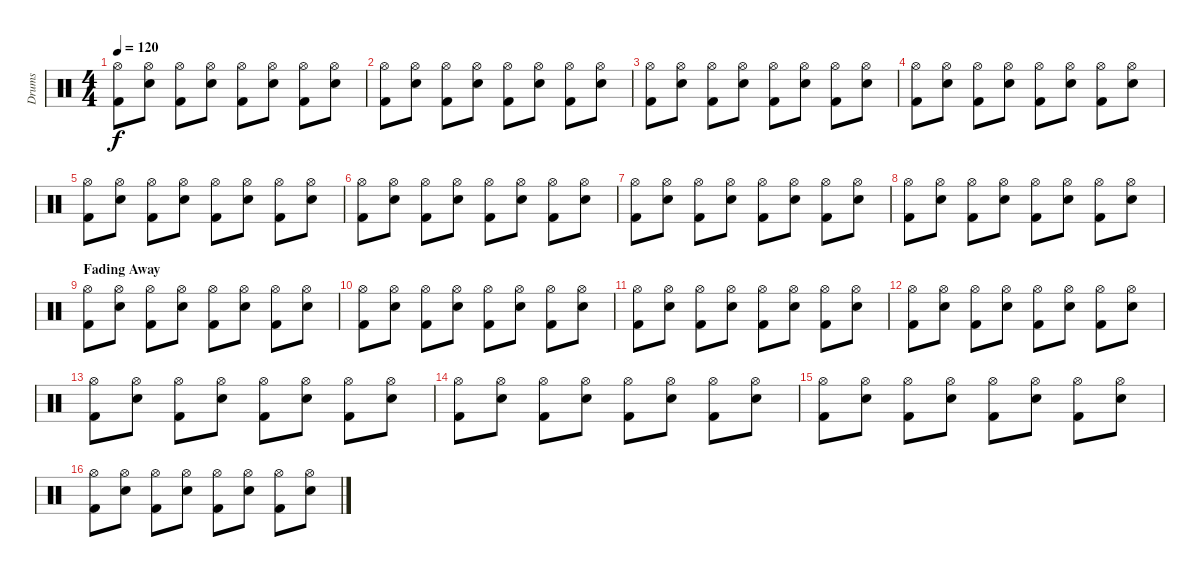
\track ("Drums" "Drums") {instrument percussion}
\staff {score}
\articulation defaults
\ts (4 4)
\tempo 120
\clef neutral
\ks c
("Hi-Hat (open)" "Kick (hit) 2").8{dy f} ("Hi-Hat (open)" "Snare (hit) 2").8 ("Hi-Hat (open)" "Kick (hit) 2").8 ("Hi-Hat (open)" "Snare (hit) 2").8 ("Hi-Hat (open)" "Kick (hit) 2").8 ("Hi-Hat (open)" "Snare (hit) 2").8 ("Hi-Hat (open)" "Kick (hit) 2").8 ("Hi-Hat (open)" "Snare (hit) 2").8 |
("Hi-Hat (open)" "Kick (hit) 2").8 ("Hi-Hat (open)" "Snare (hit) 2").8 ("Hi-Hat (open)" "Kick (hit) 2").8 ("Hi-Hat (open)" "Snare (hit) 2").8 ("Hi-Hat (open)" "Kick (hit) 2").8 ("Hi-Hat (open)" "Snare (hit) 2").8 ("Hi-Hat (open)" "Kick (hit) 2").8 ("Hi-Hat (open)" "Snare (hit) 2").8 |
("Hi-Hat (open)" "Kick (hit) 2").8 ("Hi-Hat (open)" "Snare (hit) 2").8 ("Hi-Hat (open)" "Kick (hit) 2").8 ("Hi-Hat (open)" "Snare (hit) 2").8 ("Hi-Hat (open)" "Kick (hit) 2").8 ("Hi-Hat (open)" "Snare (hit) 2").8 ("Hi-Hat (open)" "Kick (hit) 2").8 ("Hi-Hat (open)" "Snare (hit) 2").8 |
("Hi-Hat (open)" "Kick (hit) 2").8 ("Hi-Hat (open)" "Snare (hit) 2").8 ("Hi-Hat (open)" "Kick (hit) 2").8 ("Hi-Hat (open)" "Snare (hit) 2").8 ("Hi-Hat (open)" "Kick (hit) 2").8 ("Hi-Hat (open)" "Snare (hit) 2").8 ("Hi-Hat (open)" "Kick (hit) 2").8 ("Hi-Hat (open)" "Snare (hit) 2").8 |
("Hi-Hat (open)" "Kick (hit) 2").8 ("Hi-Hat (open)" "Snare (hit) 2").8 ("Hi-Hat (open)" "Kick (hit) 2").8 ("Hi-Hat (open)" "Snare (hit) 2").8 ("Hi-Hat (open)" "Kick (hit) 2").8 ("Hi-Hat (open)" "Snare (hit) 2").8 ("Hi-Hat (open)" "Kick (hit) 2").8 ("Hi-Hat (open)" "Snare (hit) 2").8 |
("Hi-Hat (open)" "Kick (hit) 2").8 ("Hi-Hat (open)" "Snare (hit) 2").8 ("Hi-Hat (open)" "Kick (hit) 2").8 ("Hi-Hat (open)" "Snare (hit) 2").8 ("Hi-Hat (open)" "Kick (hit) 2").8 ("Hi-Hat (open)" "Snare (hit) 2").8 ("Hi-Hat (open)" "Kick (hit) 2").8 ("Hi-Hat (open)" "Snare (hit) 2").8 |
("Hi-Hat (open)" "Kick (hit) 2").8 ("Hi-Hat (open)" "Snare (hit) 2").8 ("Hi-Hat (open)" "Kick (hit) 2").8 ("Hi-Hat (open)" "Snare (hit) 2").8 ("Hi-Hat (open)" "Kick (hit) 2").8 ("Hi-Hat (open)" "Snare (hit) 2").8 ("Hi-Hat (open)" "Kick (hit) 2").8 ("Hi-Hat (open)" "Snare (hit) 2").8 |
("Hi-Hat (open)" "Kick (hit) 2").8 ("Hi-Hat (open)" "Snare (hit) 2").8 ("Hi-Hat (open)" "Kick (hit) 2").8 ("Hi-Hat (open)" "Snare (hit) 2").8 ("Hi-Hat (open)" "Kick (hit) 2").8 ("Hi-Hat (open)" "Snare (hit) 2").8 ("Hi-Hat (open)" "Kick (hit) 2").8 ("Hi-Hat (open)" "Snare (hit) 2").8 |
\section ("" "Fading Away")
("Hi-Hat (open)" "Kick (hit) 2").8 ("Hi-Hat (open)" "Snare (hit) 2").8 ("Hi-Hat (open)" "Kick (hit) 2").8 ("Hi-Hat (open)" "Snare (hit) 2").8 ("Hi-Hat (open)" "Kick (hit) 2").8 ("Hi-Hat (open)" "Snare (hit) 2").8 ("Hi-Hat (open)" "Kick (hit) 2").8 ("Hi-Hat (open)" "Snare (hit) 2").8 |
("Hi-Hat (open)" "Kick (hit) 2").8 ("Hi-Hat (open)" "Snare (hit) 2").8 ("Hi-Hat (open)" "Kick (hit) 2").8 ("Hi-Hat (open)" "Snare (hit) 2").8 ("Hi-Hat (open)" "Kick (hit) 2").8 ("Hi-Hat (open)" "Snare (hit) 2").8 ("Hi-Hat (open)" "Kick (hit) 2").8 ("Hi-Hat (open)" "Snare (hit) 2").8 |
("Hi-Hat (open)" "Kick (hit) 2").8 ("Hi-Hat (open)" "Snare (hit) 2").8 ("Hi-Hat (open)" "Kick (hit) 2").8 ("Hi-Hat (open)" "Snare (hit) 2").8 ("Hi-Hat (open)" "Kick (hit) 2").8 ("Hi-Hat (open)" "Snare (hit) 2").8 ("Hi-Hat (open)" "Kick (hit) 2").8 ("Hi-Hat (open)" "Snare (hit) 2").8 |
("Hi-Hat (open)" "Kick (hit) 2").8 ("Hi-Hat (open)" "Snare (hit) 2").8 ("Hi-Hat (open)" "Kick (hit) 2").8 ("Hi-Hat (open)" "Snare (hit) 2").8 ("Hi-Hat (open)" "Kick (hit) 2").8 ("Hi-Hat (open)" "Snare (hit) 2").8 ("Hi-Hat (open)" "Kick (hit) 2").8 ("Hi-Hat (open)" "Snare (hit) 2").8 |
("Hi-Hat (open)" "Kick (hit) 2").8 ("Hi-Hat (open)" "Snare (hit) 2").8 ("Hi-Hat (open)" "Kick (hit) 2").8 ("Hi-Hat (open)" "Snare (hit) 2").8 ("Hi-Hat (open)" "Kick (hit) 2").8 ("Hi-Hat (open)" "Snare (hit) 2").8 ("Hi-Hat (open)" "Kick (hit) 2").8 ("Hi-Hat (open)" "Snare (hit) 2").8 |
("Hi-Hat (open)" "Kick (hit) 2").8 ("Hi-Hat (open)" "Snare (hit) 2").8 ("Hi-Hat (open)" "Kick (hit) 2").8 ("Hi-Hat (open)" "Snare (hit) 2").8 ("Hi-Hat (open)" "Kick (hit) 2").8 ("Hi-Hat (open)" "Snare (hit) 2").8 ("Hi-Hat (open)" "Kick (hit) 2").8 ("Hi-Hat (open)" "Snare (hit) 2").8 |
("Hi-Hat (open)" "Kick (hit) 2").8 ("Hi-Hat (open)" "Snare (hit) 2").8 ("Hi-Hat (open)" "Kick (hit) 2").8 ("Hi-Hat (open)" "Snare (hit) 2").8 ("Hi-Hat (open)" "Kick (hit) 2").8 ("Hi-Hat (open)" "Snare (hit) 2").8 ("Hi-Hat (open)" "Kick (hit) 2").8 ("Hi-Hat (open)" "Snare (hit) 2").8 |
("Hi-Hat (open)" "Kick (hit) 2").8 ("Hi-Hat (open)" "Snare (hit) 2").8 ("Hi-Hat (open)" "Kick (hit) 2").8 ("Hi-Hat (open)" "Snare (hit) 2").8 ("Hi-Hat (open)" "Kick (hit) 2").8 ("Hi-Hat (open)" "Snare (hit) 2").8 ("Hi-Hat (open)" "Kick (hit) 2").8 ("Hi-Hat (open)" "Snare (hit) 2").8
